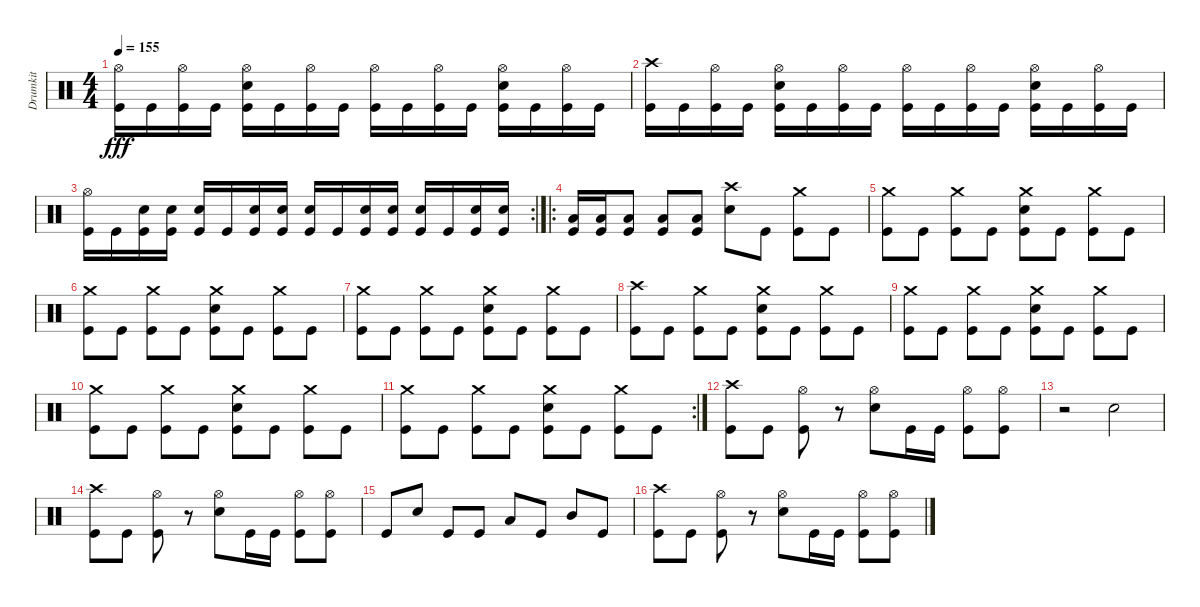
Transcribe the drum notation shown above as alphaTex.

\track ("Drumkit" "Drumkit") {instrument percussion}
\staff {score}
\articulation defaults
\ts (4 4)
\tempo 155
\clef neutral
\ks c
("Hi-Hat (open)" "Kick (hit)").16{dy fff} "Kick (hit)".16 ("Hi-Hat (open)" "Kick (hit)").16 "Kick (hit)".16 ("Hi-Hat (open)" "Snare (hit) 2" "Kick (hit)").16 "Kick (hit)".16 ("Hi-Hat (open)" "Kick (hit)").16 "Kick (hit)".16 ("Hi-Hat (open)" "Kick (hit)").16 "Kick (hit)".16 ("Hi-Hat (open)" "Kick (hit)").16 "Kick (hit)".16 ("Hi-Hat (open)" "Snare (hit) 2" "Kick (hit)").16 "Kick (hit)".16 ("Hi-Hat (open)" "Kick (hit)").16 "Kick (hit)".16 |
("Crash high (hit)" "Kick (hit)").16 "Kick (hit)".16 ("Hi-Hat (open)" "Kick (hit)").16 "Kick (hit)".16 ("Hi-Hat (open)" "Snare (hit) 2" "Kick (hit)").16 "Kick (hit)".16 ("Hi-Hat (open)" "Kick (hit)").16 "Kick (hit)".16 ("Hi-Hat (open)" "Kick (hit)").16 "Kick (hit)".16 ("Hi-Hat (open)" "Kick (hit)").16 "Kick (hit)".16 ("Hi-Hat (open)" "Snare (hit) 2" "Kick (hit)").16 "Kick (hit)".16 ("Hi-Hat (open)" "Kick (hit)").16 "Kick (hit)".16 |
\rc 2
("Hi-Hat (open)" "Kick (hit)").16 "Kick (hit)".16 ("Snare (hit) 2" "Kick (hit)").16 ("Snare (hit) 2" "Kick (hit)").16 ("Snare (hit) 2" "Kick (hit)").16 "Kick (hit)".16 ("Snare (hit) 2" "Kick (hit)").16 ("Snare (hit) 2" "Kick (hit)").16 ("Snare (hit) 2" "Kick (hit)").16 "Kick (hit)".16 ("Snare (hit) 2" "Kick (hit)").16 ("Snare (hit) 2" "Kick (hit)").16 ("Snare (hit) 2" "Kick (hit)").16 "Kick (hit)".16 ("Snare (hit) 2" "Kick (hit)").16 ("Snare (hit) 2" "Kick (hit)").16 |
\ro
("Low Tom (hit)" "Kick (hit)").16 ("Low Tom (hit)" "Kick (hit)").16 ("Low Floor Tom (hit)" "Kick (hit)").8 ("Low Floor Tom (hit)" "Kick (hit)").8 ("Low Floor Tom (hit)" "Kick (hit)").8 ("Crash high (hit)" "Snare (hit) 2").8 "Kick (hit)".8 ("Crash medium (hit)" "Kick (hit)").8 "Kick (hit)".8 |
("Crash medium (hit)" "Kick (hit)").8 "Kick (hit)".8 ("Crash medium (hit)" "Kick (hit)").8 "Kick (hit)".8 ("Crash medium (hit)" "Snare (hit) 2" "Kick (hit)").8 "Kick (hit)".8 ("Crash medium (hit)" "Kick (hit)").8 "Kick (hit)".8 |
("Crash medium (hit)" "Kick (hit)").8 "Kick (hit)".8 ("Crash medium (hit)" "Kick (hit)").8 "Kick (hit)".8 ("Crash medium (hit)" "Snare (hit) 2" "Kick (hit)").8 "Kick (hit)".8 ("Crash medium (hit)" "Kick (hit)").8 "Kick (hit)".8 |
("Crash medium (hit)" "Kick (hit)").8 "Kick (hit)".8 ("Crash medium (hit)" "Kick (hit)").8 "Kick (hit)".8 ("Crash medium (hit)" "Snare (hit) 2" "Kick (hit)").8 "Kick (hit)".8 ("Crash medium (hit)" "Kick (hit)").8 "Kick (hit)".8 |
("Crash high (hit)" "Kick (hit)").8 "Kick (hit)".8 ("Crash medium (hit)" "Kick (hit)").8 "Kick (hit)".8 ("Crash medium (hit)" "Snare (hit) 2" "Kick (hit)").8 "Kick (hit)".8 ("Crash medium (hit)" "Kick (hit)").8 "Kick (hit)".8 |
("Crash medium (hit)" "Kick (hit)").8 "Kick (hit)".8 ("Crash medium (hit)" "Kick (hit)").8 "Kick (hit)".8 ("Crash medium (hit)" "Snare (hit) 2" "Kick (hit)").8 "Kick (hit)".8 ("Crash medium (hit)" "Kick (hit)").8 "Kick (hit)".8 |
("Crash medium (hit)" "Kick (hit)").8 "Kick (hit)".8 ("Crash medium (hit)" "Kick (hit)").8 "Kick (hit)".8 ("Crash medium (hit)" "Snare (hit) 2" "Kick (hit)").8 "Kick (hit)".8 ("Crash medium (hit)" "Kick (hit)").8 "Kick (hit)".8 |
\rc 2
("Crash medium (hit)" "Kick (hit)").8 "Kick (hit)".8 ("Crash medium (hit)" "Kick (hit)").8 "Kick (hit)".8 ("Crash medium (hit)" "Snare (hit) 2" "Kick (hit)").8 "Kick (hit)".8 ("Crash medium (hit)" "Kick (hit)").8 "Kick (hit)".8 |
("Crash high (hit)" "Kick (hit)").8 "Kick (hit)".8 ("Hi-Hat (open)" "Kick (hit)").8 r.8 ("Hi-Hat (open)" "Snare (hit) 2").8 "Kick (hit)".16 "Kick (hit)".16 ("Hi-Hat (open)" "Kick (hit)").8 ("Hi-Hat (open)" "Kick (hit)").8 |
r.2 "Snare (hit) 2".2 |
("Crash high (hit)" "Kick (hit)").8 "Kick (hit)".8 ("Hi-Hat (open)" "Kick (hit)").8 r.8 ("Hi-Hat (open)" "Snare (hit) 2").8 "Kick (hit)".16 "Kick (hit)".16 ("Hi-Hat (open)" "Kick (hit)").8 ("Hi-Hat (open)" "Kick (hit)").8 |
"Kick (hit)".8 "Snare (hit) 2".8 "Kick (hit)".8 "Kick (hit)".8 "Low Tom (hit)".8 "Kick (hit)".8 "Mid Tom (hit)".8 "Kick (hit)".8 |
("Crash high (hit)" "Kick (hit)").8 "Kick (hit)".8 ("Hi-Hat (open)" "Kick (hit)").8 r.8 ("Hi-Hat (open)" "Snare (hit) 2").8 "Kick (hit)".16 "Kick (hit)".16 ("Hi-Hat (open)" "Kick (hit)").8 ("Hi-Hat (open)" "Kick (hit)").8
